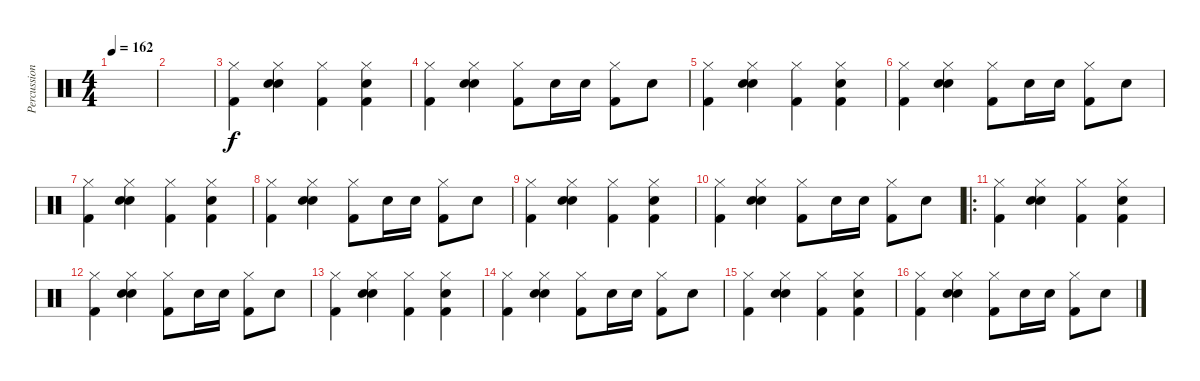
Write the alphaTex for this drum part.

\track ("Percussions" "Percussion") {instrument percussion}
\staff {score}
\articulation defaults
\ts (4 4)
\tempo 162
\clef neutral
\ks c
|
|
("Hi-Hat (closed)" "Kick (hit) 2").4 ("Hi-Hat (closed)" "Electric Snare (hit)" "Snare (hit) 2").4 ("Hi-Hat (closed)" "Kick (hit) 2").4 ("Hi-Hat (closed)" "Kick (hit) 2" "Electric Snare (hit)").4 |
("Hi-Hat (closed)" "Kick (hit) 2").4 ("Hi-Hat (closed)" "Electric Snare (hit)" "Snare (hit) 2").4 ("Hi-Hat (closed)" "Kick (hit) 2").8 "Electric Snare (hit)".16 "Electric Snare (hit)".16 ("Hi-Hat (closed)" "Kick (hit) 2").8 "Electric Snare (hit)".8 |
("Hi-Hat (closed)" "Kick (hit) 2").4 ("Hi-Hat (closed)" "Electric Snare (hit)" "Snare (hit) 2").4 ("Hi-Hat (closed)" "Kick (hit) 2").4 ("Hi-Hat (closed)" "Kick (hit) 2" "Electric Snare (hit)").4 |
("Hi-Hat (closed)" "Kick (hit) 2").4 ("Hi-Hat (closed)" "Electric Snare (hit)" "Snare (hit) 2").4 ("Hi-Hat (closed)" "Kick (hit) 2").8 "Electric Snare (hit)".16 "Electric Snare (hit)".16 ("Hi-Hat (closed)" "Kick (hit) 2").8 "Electric Snare (hit)".8 |
("Hi-Hat (closed)" "Kick (hit) 2").4 ("Hi-Hat (closed)" "Electric Snare (hit)" "Snare (hit) 2").4 ("Hi-Hat (closed)" "Kick (hit) 2").4 ("Hi-Hat (closed)" "Kick (hit) 2" "Electric Snare (hit)").4 |
("Hi-Hat (closed)" "Kick (hit) 2").4 ("Hi-Hat (closed)" "Electric Snare (hit)" "Snare (hit) 2").4 ("Hi-Hat (closed)" "Kick (hit) 2").8 "Electric Snare (hit)".16 "Electric Snare (hit)".16 ("Hi-Hat (closed)" "Kick (hit) 2").8 "Electric Snare (hit)".8 |
("Hi-Hat (closed)" "Kick (hit) 2").4 ("Hi-Hat (closed)" "Electric Snare (hit)" "Snare (hit) 2").4 ("Hi-Hat (closed)" "Kick (hit) 2").4 ("Hi-Hat (closed)" "Kick (hit) 2" "Electric Snare (hit)").4 |
("Hi-Hat (closed)" "Kick (hit) 2").4 ("Hi-Hat (closed)" "Electric Snare (hit)" "Snare (hit) 2").4 ("Hi-Hat (closed)" "Kick (hit) 2").8 "Electric Snare (hit)".16 "Electric Snare (hit)".16 ("Hi-Hat (closed)" "Kick (hit) 2").8 "Electric Snare (hit)".8 |
\ro
("Hi-Hat (closed)" "Kick (hit) 2").4 ("Hi-Hat (closed)" "Electric Snare (hit)" "Snare (hit) 2").4 ("Hi-Hat (closed)" "Kick (hit) 2").4 ("Hi-Hat (closed)" "Kick (hit) 2" "Electric Snare (hit)").4 |
("Hi-Hat (closed)" "Kick (hit) 2").4 ("Hi-Hat (closed)" "Electric Snare (hit)" "Snare (hit) 2").4 ("Hi-Hat (closed)" "Kick (hit) 2").8 "Electric Snare (hit)".16 "Electric Snare (hit)".16 ("Hi-Hat (closed)" "Kick (hit) 2").8 "Electric Snare (hit)".8 |
("Hi-Hat (closed)" "Kick (hit) 2").4 ("Hi-Hat (closed)" "Electric Snare (hit)" "Snare (hit) 2").4 ("Hi-Hat (closed)" "Kick (hit) 2").4 ("Hi-Hat (closed)" "Kick (hit) 2" "Electric Snare (hit)").4 |
("Hi-Hat (closed)" "Kick (hit) 2").4 ("Hi-Hat (closed)" "Electric Snare (hit)" "Snare (hit) 2").4 ("Hi-Hat (closed)" "Kick (hit) 2").8 "Electric Snare (hit)".16 "Electric Snare (hit)".16 ("Hi-Hat (closed)" "Kick (hit) 2").8 "Electric Snare (hit)".8 |
("Hi-Hat (closed)" "Kick (hit) 2").4 ("Hi-Hat (closed)" "Electric Snare (hit)" "Snare (hit) 2").4 ("Hi-Hat (closed)" "Kick (hit) 2").4 ("Hi-Hat (closed)" "Kick (hit) 2" "Electric Snare (hit)").4 |
("Hi-Hat (closed)" "Kick (hit) 2").4 ("Hi-Hat (closed)" "Electric Snare (hit)" "Snare (hit) 2").4 ("Hi-Hat (closed)" "Kick (hit) 2").8 "Electric Snare (hit)".16 "Electric Snare (hit)".16 ("Hi-Hat (closed)" "Kick (hit) 2").8 "Electric Snare (hit)".8
